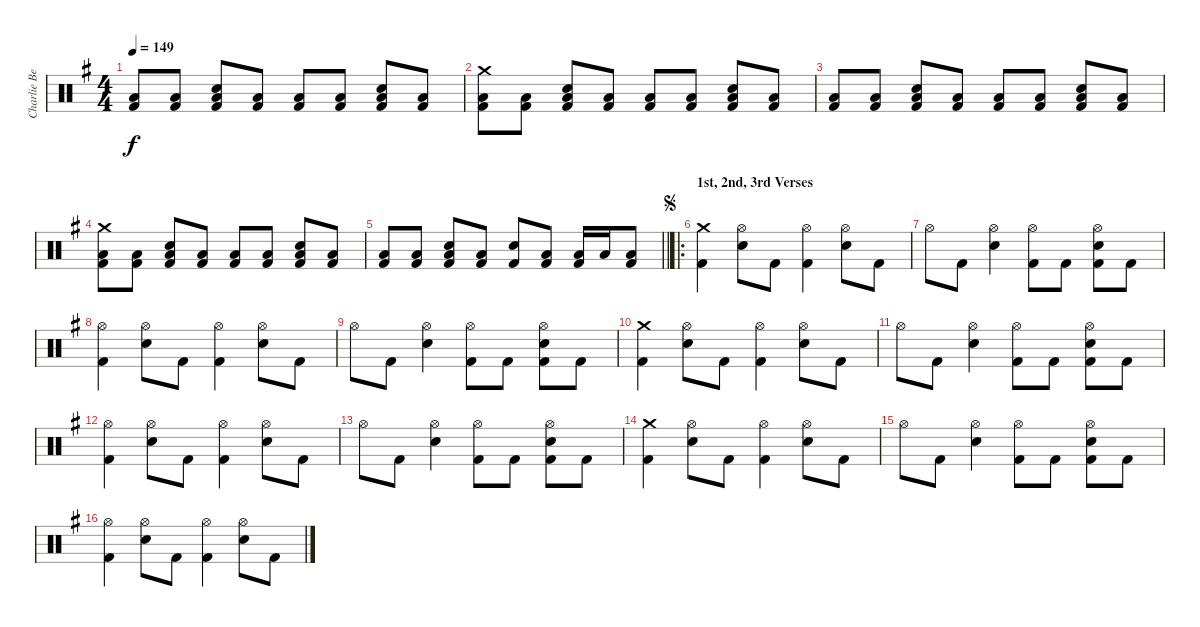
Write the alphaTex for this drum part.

\track ("Charlie Benate" "Charlie Be") {instrument percussion}
\staff {score}
\articulation defaults
\ts (4 4)
\tempo 149
\clef neutral
\ks g
("Low Tom (hit)" "Kick (hit) 2").8{dy f} ("Low Tom (hit)" "Kick (hit) 2").8 ("Snare (hit) 2" "Low Tom (hit)" "Kick (hit) 2").8 ("Low Tom (hit)" "Kick (hit) 2").8 ("Low Tom (hit)" "Kick (hit) 2").8 ("Low Tom (hit)" "Kick (hit) 2").8 ("Snare (hit) 2" "Low Tom (hit)" "Kick (hit) 2").8 ("Low Tom (hit)" "Kick (hit) 2").8 |
("Crash medium (hit)" "Low Tom (hit)" "Kick (hit) 2").8 ("Low Tom (hit)" "Kick (hit) 2").8 ("Snare (hit) 2" "Low Tom (hit)" "Kick (hit) 2").8 ("Low Tom (hit)" "Kick (hit) 2").8 ("Low Tom (hit)" "Kick (hit) 2").8 ("Low Tom (hit)" "Kick (hit) 2").8 ("Snare (hit) 2" "Low Tom (hit)" "Kick (hit) 2").8 ("Low Tom (hit)" "Kick (hit) 2").8 |
("Low Tom (hit)" "Kick (hit) 2").8 ("Low Tom (hit)" "Kick (hit) 2").8 ("Snare (hit) 2" "Low Tom (hit)" "Kick (hit) 2").8 ("Low Tom (hit)" "Kick (hit) 2").8 ("Low Tom (hit)" "Kick (hit) 2").8 ("Low Tom (hit)" "Kick (hit) 2").8 ("Snare (hit) 2" "Low Tom (hit)" "Kick (hit) 2").8 ("Low Tom (hit)" "Kick (hit) 2").8 |
("Crash medium (hit)" "Low Tom (hit)" "Kick (hit) 2").8 ("Low Tom (hit)" "Kick (hit) 2").8 ("Snare (hit) 2" "Low Tom (hit)" "Kick (hit) 2").8 ("Low Tom (hit)" "Kick (hit) 2").8 ("Low Tom (hit)" "Kick (hit) 2").8 ("Low Tom (hit)" "Kick (hit) 2").8 ("Snare (hit) 2" "Low Tom (hit)" "Kick (hit) 2").8 ("Low Tom (hit)" "Kick (hit) 2").8 |
\barLineRight lightlight
("Low Tom (hit)" "Kick (hit) 2").8 ("Low Tom (hit)" "Kick (hit) 2").8 ("Snare (hit) 2" "Low Tom (hit)" "Kick (hit) 2").8 ("Low Tom (hit)" "Kick (hit) 2").8 ("Snare (hit) 2" "Kick (hit) 2").8 ("Low Tom (hit)" "Kick (hit) 2").8 ("Low Tom (hit)" "Kick (hit) 2").16 "Low Tom (hit)".16 ("Low Tom (hit)" "Kick (hit) 2").8 |
\ro
\section ("" "1st, 2nd, 3rd Verses")
\jump segno
("Crash medium (hit)" "Kick (hit) 2").4 ("Hi-Hat (open)" "Snare (hit) 2").8 "Kick (hit) 2".8 ("Hi-Hat (open)" "Kick (hit) 2").4 ("Hi-Hat (open)" "Snare (hit) 2").8 "Kick (hit) 2".8 |
"Hi-Hat (open)".8 "Kick (hit) 2".8 ("Hi-Hat (open)" "Snare (hit) 2").4 ("Hi-Hat (open)" "Kick (hit) 2").8 "Kick (hit) 2".8 ("Hi-Hat (open)" "Snare (hit) 2" "Kick (hit) 2").8 "Kick (hit) 2".8 |
("Hi-Hat (open)" "Kick (hit) 2").4 ("Hi-Hat (open)" "Snare (hit) 2").8 "Kick (hit) 2".8 ("Hi-Hat (open)" "Kick (hit) 2").4 ("Hi-Hat (open)" "Snare (hit) 2").8 "Kick (hit) 2".8 |
"Hi-Hat (open)".8 "Kick (hit) 2".8 ("Hi-Hat (open)" "Snare (hit) 2").4 ("Hi-Hat (open)" "Kick (hit) 2").8 "Kick (hit) 2".8 ("Hi-Hat (open)" "Snare (hit) 2" "Kick (hit) 2").8 "Kick (hit) 2".8 |
("Crash medium (hit)" "Kick (hit) 2").4 ("Hi-Hat (open)" "Snare (hit) 2").8 "Kick (hit) 2".8 ("Hi-Hat (open)" "Kick (hit) 2").4 ("Hi-Hat (open)" "Snare (hit) 2").8 "Kick (hit) 2".8 |
"Hi-Hat (open)".8 "Kick (hit) 2".8 ("Hi-Hat (open)" "Snare (hit) 2").4 ("Hi-Hat (open)" "Kick (hit) 2").8 "Kick (hit) 2".8 ("Hi-Hat (open)" "Snare (hit) 2" "Kick (hit) 2").8 "Kick (hit) 2".8 |
("Hi-Hat (open)" "Kick (hit) 2").4 ("Hi-Hat (open)" "Snare (hit) 2").8 "Kick (hit) 2".8 ("Hi-Hat (open)" "Kick (hit) 2").4 ("Hi-Hat (open)" "Snare (hit) 2").8 "Kick (hit) 2".8 |
"Hi-Hat (open)".8 "Kick (hit) 2".8 ("Hi-Hat (open)" "Snare (hit) 2").4 ("Hi-Hat (open)" "Kick (hit) 2").8 "Kick (hit) 2".8 ("Hi-Hat (open)" "Snare (hit) 2" "Kick (hit) 2").8 "Kick (hit) 2".8 |
("Crash medium (hit)" "Kick (hit) 2").4 ("Hi-Hat (open)" "Snare (hit) 2").8 "Kick (hit) 2".8 ("Hi-Hat (open)" "Kick (hit) 2").4 ("Hi-Hat (open)" "Snare (hit) 2").8 "Kick (hit) 2".8 |
"Hi-Hat (open)".8 "Kick (hit) 2".8 ("Hi-Hat (open)" "Snare (hit) 2").4 ("Hi-Hat (open)" "Kick (hit) 2").8 "Kick (hit) 2".8 ("Hi-Hat (open)" "Snare (hit) 2" "Kick (hit) 2").8 "Kick (hit) 2".8 |
("Hi-Hat (open)" "Kick (hit) 2").4 ("Hi-Hat (open)" "Snare (hit) 2").8 "Kick (hit) 2".8 ("Hi-Hat (open)" "Kick (hit) 2").4 ("Hi-Hat (open)" "Snare (hit) 2").8 "Kick (hit) 2".8
